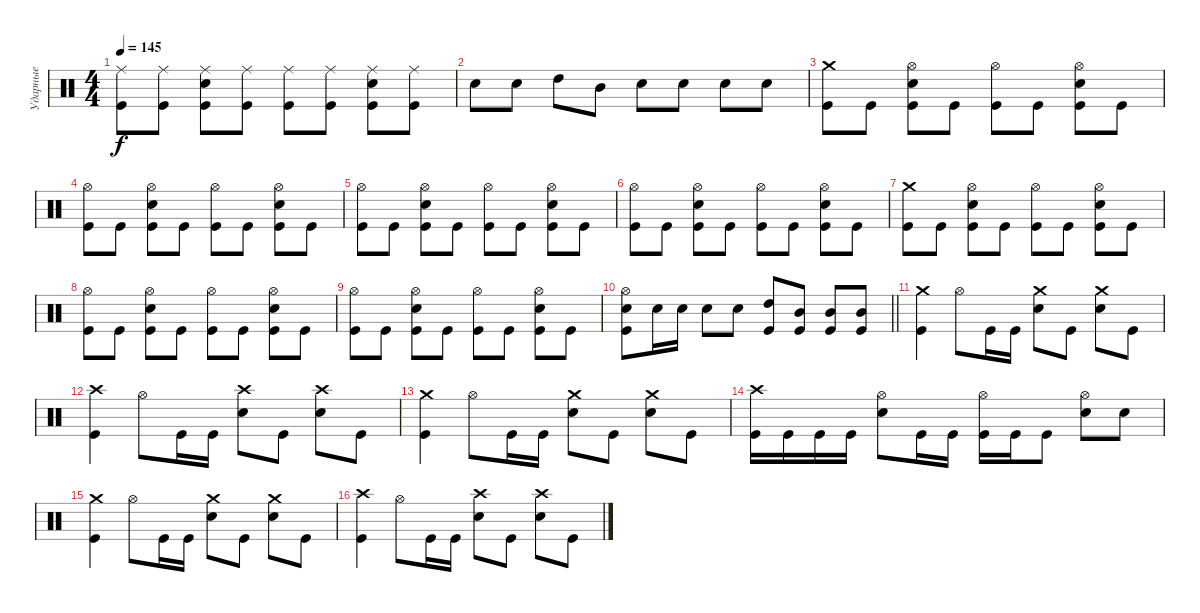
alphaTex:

\track ("Ударные" "Ударные") {instrument percussion}
\staff {score}
\articulation defaults
\ts (4 4)
\tempo 145
\clef neutral
\ks c
("Kick (hit)" "Ride (middle)").8{dy f} ("Kick (hit)" "Ride (middle)").8 ("Kick (hit)" "Snare (hit) 2" "Ride (middle)").8 ("Kick (hit)" "Ride (middle)").8 ("Kick (hit)" "Ride (middle)").8 ("Kick (hit)" "Ride (middle)").8 ("Kick (hit)" "Snare (hit) 2" "Ride (middle)").8 ("Kick (hit)" "Ride (middle)").8 |
"Snare (hit) 2".8 "Snare (hit) 2".8 "High Tom (hit)".8 "Mid Tom (hit)".8 "Snare (hit) 2".8 "Snare (hit) 2".8 "Snare (hit) 2".8 "Snare (hit) 2".8 |
("Kick (hit)" "Crash medium (hit)").8 "Kick (hit)".8 ("Kick (hit)" "Snare (hit) 2" "Hi-Hat (open)").8 "Kick (hit)".8 ("Kick (hit)" "Hi-Hat (open)").8 "Kick (hit)".8 ("Kick (hit)" "Snare (hit) 2" "Hi-Hat (open)").8 "Kick (hit)".8 |
("Kick (hit)" "Hi-Hat (open)").8 "Kick (hit)".8 ("Kick (hit)" "Snare (hit) 2" "Hi-Hat (open)").8 "Kick (hit)".8 ("Kick (hit)" "Hi-Hat (open)").8 "Kick (hit)".8 ("Kick (hit)" "Snare (hit) 2" "Hi-Hat (open)").8 "Kick (hit)".8 |
("Kick (hit)" "Hi-Hat (open)").8 "Kick (hit)".8 ("Kick (hit)" "Snare (hit) 2" "Hi-Hat (open)").8 "Kick (hit)".8 ("Kick (hit)" "Hi-Hat (open)").8 "Kick (hit)".8 ("Kick (hit)" "Snare (hit) 2" "Hi-Hat (open)").8 "Kick (hit)".8 |
("Kick (hit)" "Hi-Hat (open)").8 "Kick (hit)".8 ("Kick (hit)" "Snare (hit) 2" "Hi-Hat (open)").8 "Kick (hit)".8 ("Kick (hit)" "Hi-Hat (open)").8 "Kick (hit)".8 ("Kick (hit)" "Snare (hit) 2" "Hi-Hat (open)").8 "Kick (hit)".8 |
("Kick (hit)" "Crash medium (hit)").8 "Kick (hit)".8 ("Kick (hit)" "Snare (hit) 2" "Hi-Hat (open)").8 "Kick (hit)".8 ("Kick (hit)" "Hi-Hat (open)").8 "Kick (hit)".8 ("Kick (hit)" "Snare (hit) 2" "Hi-Hat (open)").8 "Kick (hit)".8 |
("Kick (hit)" "Hi-Hat (open)").8 "Kick (hit)".8 ("Kick (hit)" "Snare (hit) 2" "Hi-Hat (open)").8 "Kick (hit)".8 ("Kick (hit)" "Hi-Hat (open)").8 "Kick (hit)".8 ("Kick (hit)" "Snare (hit) 2" "Hi-Hat (open)").8 "Kick (hit)".8 |
("Kick (hit)" "Hi-Hat (open)").8 "Kick (hit)".8 ("Kick (hit)" "Snare (hit) 2" "Hi-Hat (open)").8 "Kick (hit)".8 ("Kick (hit)" "Hi-Hat (open)").8 "Kick (hit)".8 ("Kick (hit)" "Snare (hit) 2" "Hi-Hat (open)").8 "Kick (hit)".8 |
\barLineRight lightlight
("Kick (hit)" "Snare (hit) 2" "Hi-Hat (open)").8 "Snare (hit) 2".16 "Snare (hit) 2".16 "Snare (hit) 2".8 "Snare (hit) 2".8 ("Kick (hit)" "High Tom (hit)").8 ("Kick (hit)" "Mid Tom (hit)").8 ("Kick (hit)" "Mid Tom (hit)").8 ("Kick (hit)" "Mid Tom (hit)").8 |
("Kick (hit)" "Crash medium (hit)").4 "Hi-Hat (open)".8 "Kick (hit)".16 "Kick (hit)".16 ("Snare (hit) 2" "Crash medium (hit)").8 "Kick (hit)".8 ("Snare (hit) 2" "Crash medium (hit)").8 "Kick (hit)".8 |
("Kick (hit)" "Crash high (hit)").4 "Hi-Hat (open)".8 "Kick (hit)".16 "Kick (hit)".16 ("Snare (hit) 2" "Crash high (hit)").8 "Kick (hit)".8 ("Snare (hit) 2" "Crash high (hit)").8 "Kick (hit)".8 |
("Kick (hit)" "Crash medium (hit)").4 "Hi-Hat (open)".8 "Kick (hit)".16 "Kick (hit)".16 ("Snare (hit) 2" "Crash medium (hit)").8 "Kick (hit)".8 ("Snare (hit) 2" "Crash medium (hit)").8 "Kick (hit)".8 |
("Kick (hit)" "Crash high (hit)").16 "Kick (hit)".16 "Kick (hit)".16 "Kick (hit)".16 ("Snare (hit) 2" "Hi-Hat (open)").8 "Kick (hit)".16 "Kick (hit)".16 ("Kick (hit)" "Hi-Hat (open)").16 "Kick (hit)".16 "Kick (hit)".8 ("Snare (hit) 2" "Hi-Hat (open)").8 "Snare (hit) 2".8 |
("Kick (hit)" "Crash medium (hit)").4 "Hi-Hat (open)".8 "Kick (hit)".16 "Kick (hit)".16 ("Snare (hit) 2" "Crash medium (hit)").8 "Kick (hit)".8 ("Snare (hit) 2" "Crash medium (hit)").8 "Kick (hit)".8 |
("Kick (hit)" "Crash high (hit)").4 "Hi-Hat (open)".8 "Kick (hit)".16 "Kick (hit)".16 ("Snare (hit) 2" "Crash high (hit)").8 "Kick (hit)".8 ("Snare (hit) 2" "Crash high (hit)").8 "Kick (hit)".8
